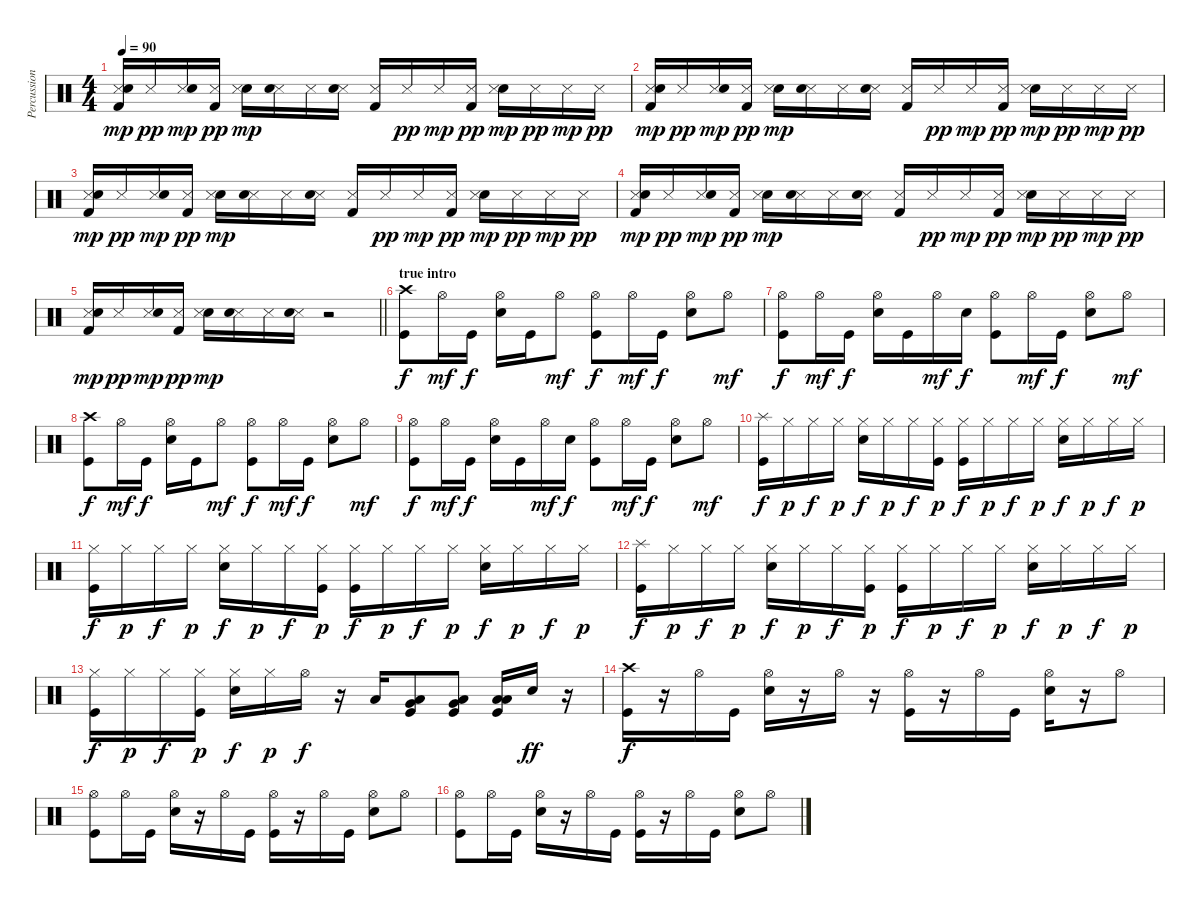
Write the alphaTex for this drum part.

\track ("Percussion" "Percussion") {instrument percussion}
\staff {score}
\articulation defaults
\ts (4 4)
\tempo 90
\clef neutral
\ks c
("Kick (hit) 2" "Snare (side stick) 3" "Hand Clap (hit)").16{dy mp volume 7} "Snare (side stick) 3".16{dy pp} ("Snare (side stick) 3" "Hand Clap (hit)").16{dy mp} ("Kick (hit) 2" "Snare (side stick) 3").16{dy pp} ("Electric Snare (hit)" "Snare (side stick) 3").16{dy mp} ("Snare (side stick) 3" "Hand Clap (hit)").16 "Snare (side stick) 3".16 ("Snare (side stick) 3" "Hand Clap (hit)").16 ("Kick (hit) 2" "Snare (side stick) 3").16 "Snare (side stick) 3".16{dy pp} "Snare (side stick) 3".16{dy mp} ("Kick (hit) 2" "Snare (side stick) 3").16{dy pp} ("Electric Snare (hit)" "Snare (side stick) 3").16{dy mp} "Snare (side stick) 3".16{dy pp} "Snare (side stick) 3".16{dy mp} "Snare (side stick) 3".16{dy pp} |
("Kick (hit) 2" "Snare (side stick) 3" "Hand Clap (hit)").16{dy mp} "Snare (side stick) 3".16{dy pp} ("Snare (side stick) 3" "Hand Clap (hit)").16{dy mp} ("Kick (hit) 2" "Snare (side stick) 3").16{dy pp} ("Electric Snare (hit)" "Snare (side stick) 3").16{dy mp} ("Snare (side stick) 3" "Hand Clap (hit)").16 "Snare (side stick) 3".16 ("Snare (side stick) 3" "Hand Clap (hit)").16 ("Kick (hit) 2" "Snare (side stick) 3").16 "Snare (side stick) 3".16{dy pp} "Snare (side stick) 3".16{dy mp} ("Kick (hit) 2" "Snare (side stick) 3").16{dy pp} ("Electric Snare (hit)" "Snare (side stick) 3").16{dy mp} "Snare (side stick) 3".16{dy pp} "Snare (side stick) 3".16{dy mp} "Snare (side stick) 3".16{dy pp} |
("Kick (hit) 2" "Snare (side stick) 3" "Hand Clap (hit)").16{dy mp} "Snare (side stick) 3".16{dy pp} ("Snare (side stick) 3" "Hand Clap (hit)").16{dy mp} ("Kick (hit) 2" "Snare (side stick) 3").16{dy pp} ("Electric Snare (hit)" "Snare (side stick) 3").16{dy mp} ("Snare (side stick) 3" "Hand Clap (hit)").16 "Snare (side stick) 3".16 ("Snare (side stick) 3" "Hand Clap (hit)").16 ("Kick (hit) 2" "Snare (side stick) 3").16 "Snare (side stick) 3".16{dy pp} "Snare (side stick) 3".16{dy mp} ("Kick (hit) 2" "Snare (side stick) 3").16{dy pp} ("Electric Snare (hit)" "Snare (side stick) 3").16{dy mp} "Snare (side stick) 3".16{dy pp} "Snare (side stick) 3".16{dy mp} "Snare (side stick) 3".16{dy pp} |
("Kick (hit) 2" "Snare (side stick) 3" "Hand Clap (hit)").16{dy mp} "Snare (side stick) 3".16{dy pp} ("Snare (side stick) 3" "Hand Clap (hit)").16{dy mp} ("Kick (hit) 2" "Snare (side stick) 3").16{dy pp} ("Electric Snare (hit)" "Snare (side stick) 3").16{dy mp} ("Snare (side stick) 3" "Hand Clap (hit)").16 "Snare (side stick) 3".16 ("Snare (side stick) 3" "Hand Clap (hit)").16 ("Kick (hit) 2" "Snare (side stick) 3").16 "Snare (side stick) 3".16{dy pp} "Snare (side stick) 3".16{dy mp} ("Kick (hit) 2" "Snare (side stick) 3").16{dy pp} ("Electric Snare (hit)" "Snare (side stick) 3").16{dy mp} "Snare (side stick) 3".16{dy pp} "Snare (side stick) 3".16{dy mp} "Snare (side stick) 3".16{dy pp} |
\barLineRight lightlight
("Kick (hit) 2" "Snare (side stick) 3" "Hand Clap (hit)").16{dy mp} "Snare (side stick) 3".16{dy pp} ("Snare (side stick) 3" "Hand Clap (hit)").16{dy mp} ("Kick (hit) 2" "Snare (side stick) 3").16{dy pp} ("Electric Snare (hit)" "Snare (side stick) 3").16{dy mp} ("Snare (side stick) 3" "Hand Clap (hit)").16 "Snare (side stick) 3".16 ("Snare (side stick) 3" "Hand Clap (hit)").16 r.2{volume 16} |
\section ("" "true intro")
("Crash high (hit)" "Kick (hit)").8{dy f} "Hi-Hat (open)".16{dy mf} "Kick (hit)".16{dy f} ("Hi-Hat (open)" "Snare (hit) 2").16 "Kick (hit)".16 "Hi-Hat (open)".8{dy mf} ("Hi-Hat (open)" "Kick (hit)").8{dy f} "Hi-Hat (open)".16{dy mf} "Kick (hit)".16{dy f} ("Hi-Hat (open)" "Snare (hit) 2").8 "Hi-Hat (open)".8{dy mf} |
("Hi-Hat (open)" "Kick (hit)").8{dy f} "Hi-Hat (open)".16{dy mf} "Kick (hit)".16{dy f} ("Hi-Hat (open)" "Snare (hit) 2").16 "Kick (hit)".16 "Hi-Hat (open)".16{dy mf} "Snare (hit) 2".16{dy f} ("Hi-Hat (open)" "Kick (hit)").8 "Hi-Hat (open)".16{dy mf} "Kick (hit)".16{dy f} ("Hi-Hat (open)" "Snare (hit) 2").8 "Hi-Hat (open)".8{dy mf} |
("Crash high (hit)" "Kick (hit)").8{dy f} "Hi-Hat (open)".16{dy mf} "Kick (hit)".16{dy f} ("Hi-Hat (open)" "Snare (hit) 2").16 "Kick (hit)".16 "Hi-Hat (open)".8{dy mf} ("Hi-Hat (open)" "Kick (hit)").8{dy f} "Hi-Hat (open)".16{dy mf} "Kick (hit)".16{dy f} ("Hi-Hat (open)" "Snare (hit) 2").8 "Hi-Hat (open)".8{dy mf} |
("Hi-Hat (open)" "Kick (hit)").8{dy f} "Hi-Hat (open)".16{dy mf} "Kick (hit)".16{dy f} ("Hi-Hat (open)" "Snare (hit) 2").16 "Kick (hit)".16 "Hi-Hat (open)".16{dy mf} "Snare (hit) 2".16{dy f} ("Hi-Hat (open)" "Kick (hit)").8 "Hi-Hat (open)".16{dy mf} "Kick (hit)".16{dy f} ("Hi-Hat (open)" "Snare (hit) 2").8 "Hi-Hat (open)".8{dy mf} |
("Splash (hit)" "Kick (hit)").16{dy f} "Hi-Hat (closed)".16{dy p} "Hi-Hat (closed)".16{dy f} "Hi-Hat (closed)".16{dy p} ("Hi-Hat (closed)" "Electric Snare (hit)").16{dy f} "Hi-Hat (closed)".16{dy p} "Hi-Hat (closed)".16{dy f} ("Hi-Hat (closed)" "Kick (hit)").16{dy p} ("Hi-Hat (closed)" "Kick (hit)").16{dy f} "Hi-Hat (closed)".16{dy p} "Hi-Hat (closed)".16{dy f} "Hi-Hat (closed)".16{dy p} ("Hi-Hat (closed)" "Electric Snare (hit)").16{dy f} "Hi-Hat (closed)".16{dy p} "Hi-Hat (closed)".16{dy f} "Hi-Hat (closed)".16{dy p} |
("Hi-Hat (closed)" "Kick (hit)").16{dy f} "Hi-Hat (closed)".16{dy p} "Hi-Hat (closed)".16{dy f} "Hi-Hat (closed)".16{dy p} ("Hi-Hat (closed)" "Electric Snare (hit)").16{dy f} "Hi-Hat (closed)".16{dy p} "Hi-Hat (closed)".16{dy f} ("Hi-Hat (closed)" "Kick (hit)").16{dy p} ("Hi-Hat (closed)" "Kick (hit)").16{dy f} "Hi-Hat (closed)".16{dy p} "Hi-Hat (closed)".16{dy f} "Hi-Hat (closed)".16{dy p} ("Hi-Hat (closed)" "Electric Snare (hit)").16{dy f} "Hi-Hat (closed)".16{dy p} "Hi-Hat (closed)".16{dy f} "Hi-Hat (closed)".16{dy p} |
("Splash (hit)" "Kick (hit)").16{dy f} "Hi-Hat (closed)".16{dy p} "Hi-Hat (closed)".16{dy f} "Hi-Hat (closed)".16{dy p} ("Hi-Hat (closed)" "Electric Snare (hit)").16{dy f} "Hi-Hat (closed)".16{dy p} "Hi-Hat (closed)".16{dy f} ("Hi-Hat (closed)" "Kick (hit)").16{dy p} ("Hi-Hat (closed)" "Kick (hit)").16{dy f} "Hi-Hat (closed)".16{dy p} "Hi-Hat (closed)".16{dy f} "Hi-Hat (closed)".16{dy p} ("Hi-Hat (closed)" "Electric Snare (hit)").16{dy f} "Hi-Hat (closed)".16{dy p} "Hi-Hat (closed)".16{dy f} "Hi-Hat (closed)".16{dy p} |
("Hi-Hat (closed)" "Kick (hit)").16{dy f} "Hi-Hat (closed)".16{dy p} "Hi-Hat (closed)".16{dy f} ("Hi-Hat (closed)" "Kick (hit)").16{dy p} ("Hi-Hat (closed)" "Electric Snare (hit)").16{dy f} "Hi-Hat (closed)".16{dy p} "Hi-Hat (open)".16{dy f} r.16 "Low Tom (hit)".16 ("Low Floor Tom (hit)" "Very Low Tom (hit)" "Kick (hit)").8 ("Low Floor Tom (hit)" "Very Low Tom (hit)" "Kick (hit)").8 ("Low Floor Tom (hit)" "Low Floor Tom (hit)" "Kick (hit)").16 "Snare (hit) 2".16{dy ff} r.16 |
("Crash high (hit)" "Kick (hit)").16{dy f} r.16 "Hi-Hat (open)".16 "Kick (hit)".16 ("Hi-Hat (open)" "Snare (hit) 2").16 r.16 "Hi-Hat (open)".16 r.16 ("Hi-Hat (open)" "Kick (hit)").16 r.16 "Hi-Hat (open)".16 "Kick (hit)".16 ("Hi-Hat (open)" "Snare (hit) 2").16 r.16 "Hi-Hat (open)".8 |
("Hi-Hat (open)" "Kick (hit)").8 "Hi-Hat (open)".16 "Kick (hit)".16 ("Hi-Hat (open)" "Snare (hit) 2").16 r.16 "Hi-Hat (open)".16 "Kick (hit)".16 ("Hi-Hat (open)" "Kick (hit)").16 r.16 "Hi-Hat (open)".16 "Kick (hit)".16 ("Hi-Hat (open)" "Snare (hit) 2").8 "Hi-Hat (open)".8 |
("Hi-Hat (open)" "Kick (hit)").8 "Hi-Hat (open)".16 "Kick (hit)".16 ("Hi-Hat (open)" "Snare (hit) 2").16 r.16 "Hi-Hat (open)".16 "Kick (hit)".16 ("Hi-Hat (open)" "Kick (hit)").16 r.16 "Hi-Hat (open)".16 "Kick (hit)".16 ("Hi-Hat (open)" "Snare (hit) 2").8 "Hi-Hat (open)".8
